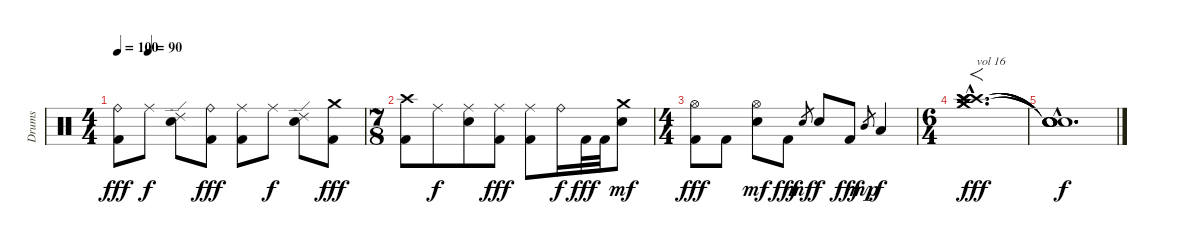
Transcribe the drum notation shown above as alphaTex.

\track ("Drums" "Drums") {instrument percussion}
\staff {score}
\articulation defaults
\ts (4 4)
\tempo 100
\tempo (90 0.125)
\clef neutral
\ks c
("Ride (bell)" "Kick (hit) 2").8{dy fff} "Ride (middle)".8{dy f} ("Ride (edge) 2" "Electric Snare (hit)").8 ("Ride (bell)" "Kick (hit) 2").8{dy fff} ("Ride (middle)" "Kick (hit) 2").8 "Ride (middle)".8{dy f} ("Ride (edge) 2" "Electric Snare (hit)").8 ("Crash medium (hit)" "Kick (hit) 2").8{dy fff} |
\ts (7 8)
("Crash high (hit)" "Kick (hit) 2").8 "Ride (middle)".8{dy f} ("Ride (middle)" "Electric Snare (hit)").8 ("Ride (middle)" "Kick (hit) 2").8{dy fff} ("Ride (middle)" "Kick (hit) 2").8 "Ride (bell)".16{dy f} "Kick (hit) 2".32{dy fff} "Kick (hit) 2".32 ("Crash medium (hit)" "Electric Snare (hit)").8{dy mf} |
\ts (4 4)
("Hi-Hat (open)" "Kick (hit) 2").8{dy fff} "Kick (hit) 2".8 ("Hi-Hat (open)" "Electric Snare (hit)").8{dy mf} "Kick (hit) 2".8{dy fff} "Electric Snare (hit)".8{gr dy mf} "Electric Snare (hit)".8{dy f} "Kick (hit) 2".8{dy fff} "Mid Tom (hit)".8{gr dy mp} "Low Tom (hit)".4{dy f} |
\ts (6 4)
("Crash high (hit)"{hac} "Crash medium (hit)"{hac} "Splash (hit)"{hac} "Crash high (hit)"{hac} "Crash high (hit)"{hac} "Crash medium (hit)"{hac}).1{f d bd 480 txt "vol 16" dy fff volume 16} |
("Snare (hit)"{hac t} "Snare (hit)"{hac t} "Snare (hit)"{hac t} "Snare (hit)"{hac t} "Snare (hit)"{hac t} "Snare (hit)"{hac t}).1{d dy f}
